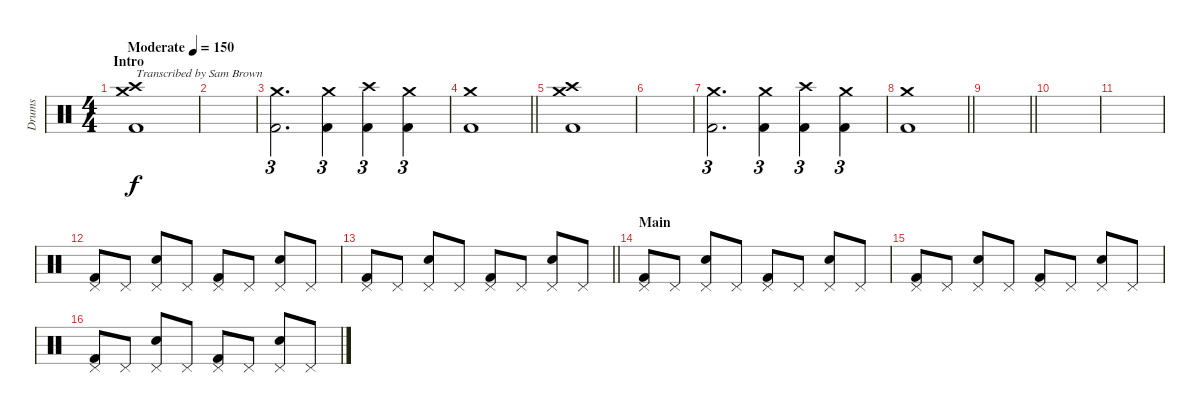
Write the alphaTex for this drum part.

\track ("Drums" "Drums") {instrument percussion}
\staff {score}
\articulation defaults
\ts (4 4)
\section ("" "Intro")
\tempo (150 "Moderate")
\clef neutral
\ks c
("Kick (hit) 2" "Crash medium (hit)" "Crash high (hit)").1{txt "Transcribed by Sam Brown" dy f} |
|
("Kick (hit) 2" "Crash medium (hit)").2{d tu (3 2)} ("Kick (hit) 2" "Crash medium (hit)").4{tu (3 2)} ("Kick (hit) 2" "Crash high (hit)").4{tu (3 2)} ("Kick (hit) 2" "Crash medium (hit)").4{tu (3 2)} |
\barLineRight lightlight
("Kick (hit) 2" "Crash medium (hit)").1 |
\section ("" "")
("Kick (hit) 2" "Crash medium (hit)" "Crash high (hit)").1 |
|
("Kick (hit) 2" "Crash medium (hit)").2{d tu (3 2)} ("Kick (hit) 2" "Crash medium (hit)").4{tu (3 2)} ("Kick (hit) 2" "Crash high (hit)").4{tu (3 2)} ("Kick (hit) 2" "Crash medium (hit)").4{tu (3 2)} |
\barLineRight lightlight
("Kick (hit) 2" "Crash medium (hit)").1 |
\barLineRight lightlight
|
\section ("" "")
|
|
("Kick (hit) 2" "Pedal Hi-Hat (hit)").8 "Pedal Hi-Hat (hit)".8 ("Snare (hit) 2" "Pedal Hi-Hat (hit)").8 "Pedal Hi-Hat (hit)".8 ("Kick (hit) 2" "Pedal Hi-Hat (hit)").8 "Pedal Hi-Hat (hit)".8 ("Snare (hit) 2" "Pedal Hi-Hat (hit)").8 "Pedal Hi-Hat (hit)".8 |
\barLineRight lightlight
("Kick (hit) 2" "Pedal Hi-Hat (hit)").8 "Pedal Hi-Hat (hit)".8 ("Snare (hit) 2" "Pedal Hi-Hat (hit)").8 "Pedal Hi-Hat (hit)".8 ("Kick (hit) 2" "Pedal Hi-Hat (hit)").8 "Pedal Hi-Hat (hit)".8 ("Snare (hit) 2" "Pedal Hi-Hat (hit)").8 "Pedal Hi-Hat (hit)".8 |
\section ("" "Main")
("Kick (hit) 2" "Pedal Hi-Hat (hit)").8 "Pedal Hi-Hat (hit)".8 ("Snare (hit) 2" "Pedal Hi-Hat (hit)").8 "Pedal Hi-Hat (hit)".8 ("Kick (hit) 2" "Pedal Hi-Hat (hit)").8 "Pedal Hi-Hat (hit)".8 ("Snare (hit) 2" "Pedal Hi-Hat (hit)").8 "Pedal Hi-Hat (hit)".8 |
("Kick (hit) 2" "Pedal Hi-Hat (hit)").8 "Pedal Hi-Hat (hit)".8 ("Snare (hit) 2" "Pedal Hi-Hat (hit)").8 "Pedal Hi-Hat (hit)".8 ("Kick (hit) 2" "Pedal Hi-Hat (hit)").8 "Pedal Hi-Hat (hit)".8 ("Snare (hit) 2" "Pedal Hi-Hat (hit)").8 "Pedal Hi-Hat (hit)".8 |
("Kick (hit) 2" "Pedal Hi-Hat (hit)").8 "Pedal Hi-Hat (hit)".8 ("Snare (hit) 2" "Pedal Hi-Hat (hit)").8 "Pedal Hi-Hat (hit)".8 ("Kick (hit) 2" "Pedal Hi-Hat (hit)").8 "Pedal Hi-Hat (hit)".8 ("Snare (hit) 2" "Pedal Hi-Hat (hit)").8 "Pedal Hi-Hat (hit)".8
